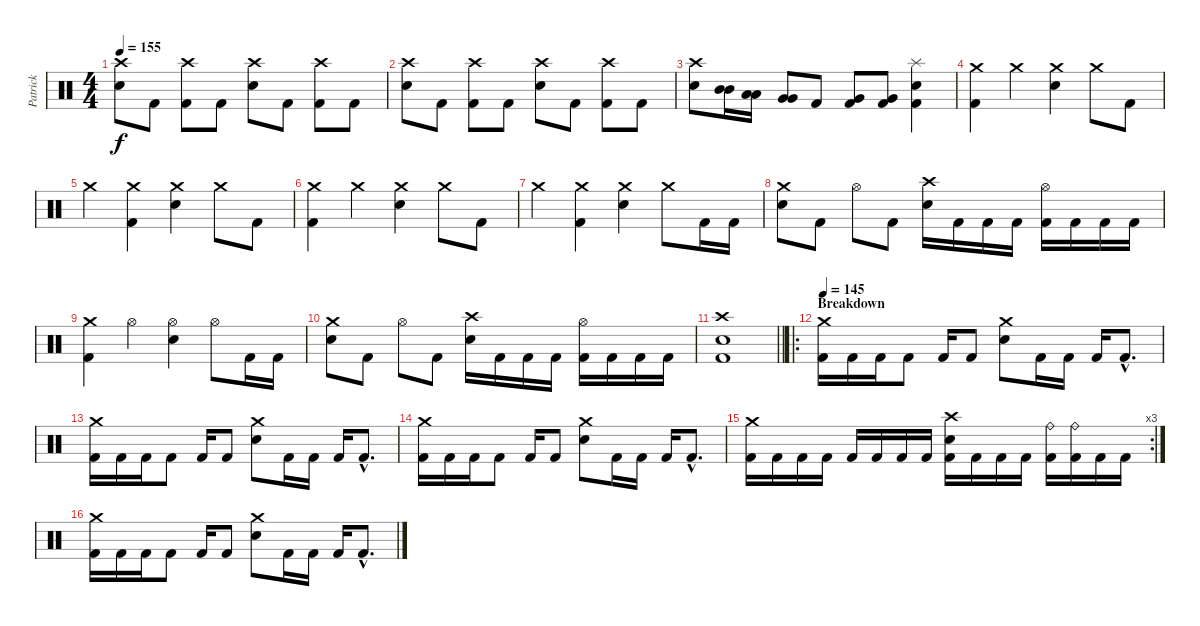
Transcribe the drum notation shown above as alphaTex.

\track ("Patrick" "Patrick") {instrument percussion}
\staff {score}
\articulation defaults
\ts (4 4)
\tempo 155
\clef neutral
\ks c
("Crash high (hit)" "Electric Snare (hit)").8{dy f} "Kick (hit) 2".8 ("Crash high (hit)" "Kick (hit) 2").8 "Kick (hit) 2".8 ("Crash high (hit)" "Electric Snare (hit)").8 "Kick (hit) 2".8 ("Crash high (hit)" "Kick (hit) 2").8 "Kick (hit) 2".8 |
("Crash high (hit)" "Electric Snare (hit)").8 "Kick (hit) 2".8 ("Crash high (hit)" "Kick (hit) 2").8 "Kick (hit) 2".8 ("Crash high (hit)" "Electric Snare (hit)").8 "Kick (hit) 2".8 ("Crash high (hit)" "Kick (hit) 2").8 "Kick (hit) 2".8 |
("Crash high (hit)" "Electric Snare (hit)").8 ("Mid Tom (hit)" "Mid Tom (hit)").16 ("Low Tom (hit)" "Low Tom (hit)").16 ("Very Low Tom (hit)" "Very Low Tom (hit)").8 "Kick (hit) 2".8 ("Very Low Tom (hit)" "Kick (hit) 2").8 ("Very Low Tom (hit)" "Kick (hit) 2").8 ("Splash (hit)" "Electric Snare (hit)" "Kick (hit) 2").4 |
("Crash medium (hit)" "Kick (hit) 2").4 "Crash medium (hit)".4 ("Crash medium (hit)" "Electric Snare (hit)").4 "Crash medium (hit)".8 "Kick (hit) 2".8 |
"Crash medium (hit)".4 ("Crash medium (hit)" "Kick (hit) 2").4 ("Crash medium (hit)" "Electric Snare (hit)").4 "Crash medium (hit)".8 "Kick (hit) 2".8 |
("Crash medium (hit)" "Kick (hit) 2").4 "Crash medium (hit)".4 ("Crash medium (hit)" "Electric Snare (hit)").4 "Crash medium (hit)".8 "Kick (hit) 2".8 |
"Crash medium (hit)".4 ("Crash medium (hit)" "Kick (hit) 2").4 ("Crash medium (hit)" "Electric Snare (hit)").4 "Crash medium (hit)".8 "Kick (hit) 2".16 "Kick (hit) 2".16 |
("Crash medium (hit)" "Electric Snare (hit)").8 "Kick (hit) 2".8 "Hi-Hat (open)".8 "Kick (hit) 2".8 ("Crash high (hit)" "Electric Snare (hit)").16 "Kick (hit) 2".16 "Kick (hit) 2".16 "Kick (hit) 2".16 ("Hi-Hat (open)" "Kick (hit) 2").16 "Kick (hit) 2".16 "Kick (hit) 2".16 "Kick (hit) 2".16 |
("Crash medium (hit)" "Kick (hit) 2").4 "Hi-Hat (open)".4 ("Hi-Hat (open)" "Electric Snare (hit)").4 "Hi-Hat (open)".8 "Kick (hit) 2".16 "Kick (hit) 2".16 |
("Crash medium (hit)" "Electric Snare (hit)").8 "Kick (hit) 2".8 "Hi-Hat (open)".8 "Kick (hit) 2".8 ("Crash high (hit)" "Electric Snare (hit)").16 "Kick (hit) 2".16 "Kick (hit) 2".16 "Kick (hit) 2".16 ("Hi-Hat (open)" "Kick (hit) 2").16 "Kick (hit) 2".16 "Kick (hit) 2".16 "Kick (hit) 2".16 |
\barLineRight lightlight
("Crash high (hit)" "Electric Snare (hit)" "Kick (hit) 2").1 |
\ro
\section ("" "Breakdown")
\tempo 145
("Crash medium (hit)" "Kick (hit) 2").16 "Kick (hit) 2".16 "Kick (hit) 2".16 "Kick (hit) 2".8 "Kick (hit) 2".16 "Kick (hit) 2".8 ("Crash medium (hit)" "Electric Snare (hit)").8 "Kick (hit) 2".16 "Kick (hit) 2".16 "Kick (hit) 2".16 "Kick (hit) 2"{hac}.8{d} |
("Crash medium (hit)" "Kick (hit) 2").16 "Kick (hit) 2".16 "Kick (hit) 2".16 "Kick (hit) 2".8 "Kick (hit) 2".16 "Kick (hit) 2".8 ("Crash medium (hit)" "Electric Snare (hit)").8 "Kick (hit) 2".16 "Kick (hit) 2".16 "Kick (hit) 2".16 "Kick (hit) 2"{hac}.8{d} |
("Crash medium (hit)" "Kick (hit) 2").16 "Kick (hit) 2".16 "Kick (hit) 2".16 "Kick (hit) 2".8 "Kick (hit) 2".16 "Kick (hit) 2".8 ("Crash medium (hit)" "Electric Snare (hit)").8 "Kick (hit) 2".16 "Kick (hit) 2".16 "Kick (hit) 2".16 "Kick (hit) 2"{hac}.8{d} |
\rc 3
("Crash medium (hit)" "Kick (hit) 2").16 "Kick (hit) 2".16 "Kick (hit) 2".16 "Kick (hit) 2".16 "Kick (hit) 2".16 "Kick (hit) 2".16 "Kick (hit) 2".16 "Kick (hit) 2".16 ("Crash high (hit)" "Electric Snare (hit)" "Kick (hit) 2").16 "Kick (hit) 2".16 "Kick (hit) 2".16 "Kick (hit) 2".16 ("Ride (bell)" "Kick (hit) 2").16 ("Ride (bell)" "Kick (hit) 2").16 "Kick (hit) 2".16 "Kick (hit) 2".16 |
("Crash medium (hit)" "Kick (hit) 2").16 "Kick (hit) 2".16 "Kick (hit) 2".16 "Kick (hit) 2".8 "Kick (hit) 2".16 "Kick (hit) 2".8 ("Crash medium (hit)" "Electric Snare (hit)").8 "Kick (hit) 2".16 "Kick (hit) 2".16 "Kick (hit) 2".16 "Kick (hit) 2"{hac}.8{d}
